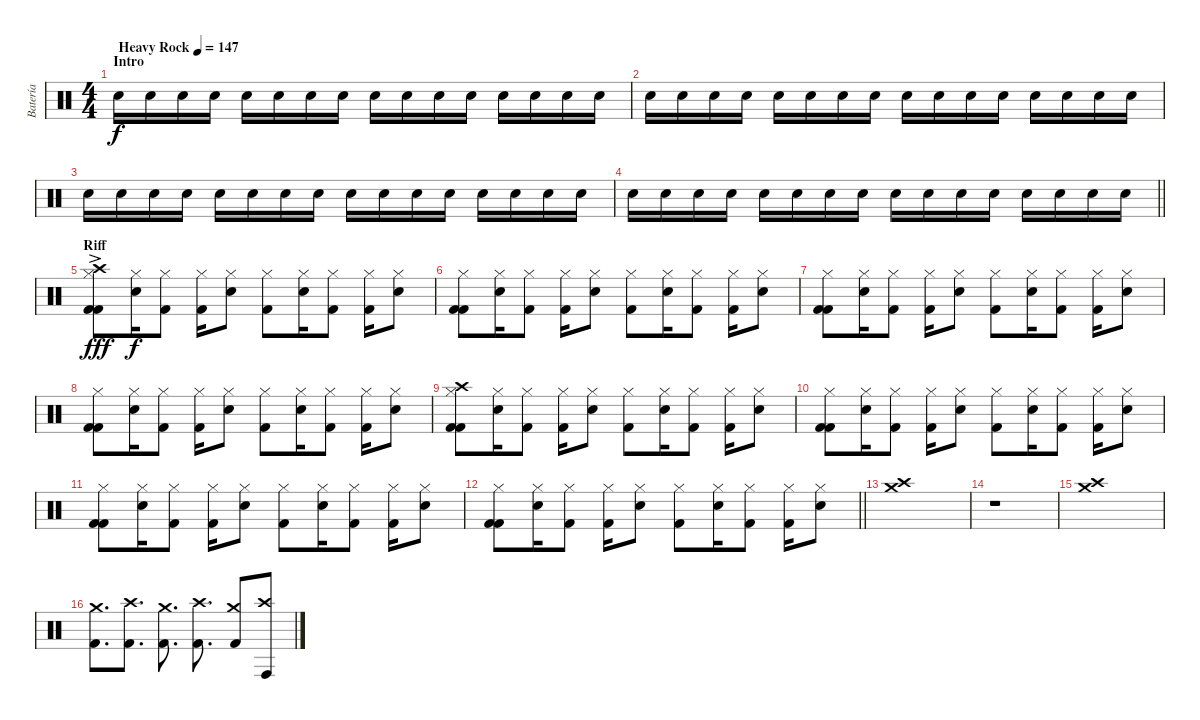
\track ("Batería" "Batería") {instrument percussion}
\staff {score}
\articulation defaults
\ts (4 4)
\section ("" "Intro")
\tempo (147 "Heavy Rock")
\clef neutral
\ks c "Snare (hit) 2".16{dy f} "Snare (hit) 2".16 "Snare (hit) 2".16 "Snare (hit) 2".16 "Snare (hit) 2".16 "Snare (hit) 2".16 "Snare (hit) 2".16 "Snare (hit) 2".16 "Snare (hit) 2".16 "Snare (hit) 2".16 "Snare (hit) 2".16 "Snare (hit) 2".16 "Snare (hit) 2".16 "Snare (hit) 2".16 "Snare (hit) 2".16 "Snare (hit) 2".16
|
"Snare (hit) 2".16 "Snare (hit) 2".16 "Snare (hit) 2".16 "Snare (hit) 2".16 "Snare (hit) 2".16 "Snare (hit) 2".16 "Snare (hit) 2".16 "Snare (hit) 2".16 "Snare (hit) 2".16 "Snare (hit) 2".16 "Snare (hit) 2".16 "Snare (hit) 2".16 "Snare (hit) 2".16 "Snare (hit) 2".16 "Snare (hit) 2".16 "Snare (hit) 2".16 |
"Snare (hit) 2".16 "Snare (hit) 2".16 "Snare (hit) 2".16 "Snare (hit) 2".16 "Snare (hit) 2".16 "Snare (hit) 2".16 "Snare (hit) 2".16 "Snare (hit) 2".16 "Snare (hit) 2".16 "Snare (hit) 2".16 "Snare (hit) 2".16 "Snare (hit) 2".16 "Snare (hit) 2".16 "Snare (hit) 2".16 "Snare (hit) 2".16 "Snare (hit) 2".16 |
\barLineRight lightlight "Snare (hit) 2".16 "Snare (hit) 2".16 "Snare (hit) 2".16 "Snare (hit) 2".16 "Snare (hit) 2".16 "Snare (hit) 2".16 "Snare (hit) 2".16 "Snare (hit) 2".16 "Snare (hit) 2".16 "Snare (hit) 2".16 "Snare (hit) 2".16 "Snare (hit) 2".16 "Snare (hit) 2".16 "Snare (hit) 2".16 "Snare (hit) 2".16 "Snare (hit) 2".16
|
\section ("" "Riff")
("Crash high (hit)"{ac} "Hi-Hat (closed)" "Kick (hit) 2" "Kick (hit) 2").8{dy fff} ("Hi-Hat (closed)" "Electric Snare (hit)").16{dy f} ("Hi-Hat (closed)" "Kick (hit) 2").8 ("Hi-Hat (closed)" "Kick (hit) 2").16 ("Hi-Hat (closed)" "Electric Snare (hit)").8 ("Hi-Hat (closed)" "Kick (hit) 2").8 ("Hi-Hat (closed)" "Electric Snare (hit)").16 ("Hi-Hat (closed)" "Kick (hit) 2").8 ("Hi-Hat (closed)" "Kick (hit) 2").16 ("Hi-Hat (closed)" "Electric Snare (hit)").8 |
("Hi-Hat (closed)" "Kick (hit) 2" "Kick (hit) 2").8 ("Hi-Hat (closed)" "Electric Snare (hit)").16 ("Hi-Hat (closed)" "Kick (hit) 2").8 ("Hi-Hat (closed)" "Kick (hit) 2").16 ("Hi-Hat (closed)" "Electric Snare (hit)").8 ("Hi-Hat (closed)" "Kick (hit) 2").8 ("Hi-Hat (closed)" "Electric Snare (hit)").16 ("Hi-Hat (closed)" "Kick (hit) 2").8 ("Hi-Hat (closed)" "Kick (hit) 2").16 ("Hi-Hat (closed)" "Electric Snare (hit)").8 |
("Hi-Hat (closed)" "Kick (hit) 2" "Kick (hit) 2").8 ("Hi-Hat (closed)" "Electric Snare (hit)").16 ("Hi-Hat (closed)" "Kick (hit) 2").8 ("Hi-Hat (closed)" "Kick (hit) 2").16 ("Hi-Hat (closed)" "Electric Snare (hit)").8 ("Hi-Hat (closed)" "Kick (hit) 2").8 ("Hi-Hat (closed)" "Electric Snare (hit)").16 ("Hi-Hat (closed)" "Kick (hit) 2").8 ("Hi-Hat (closed)" "Kick (hit) 2").16 ("Hi-Hat (closed)" "Electric Snare (hit)").8 |
("Hi-Hat (closed)" "Kick (hit) 2" "Kick (hit) 2").8 ("Hi-Hat (closed)" "Electric Snare (hit)").16 ("Hi-Hat (closed)" "Kick (hit) 2").8 ("Hi-Hat (closed)" "Kick (hit) 2").16 ("Hi-Hat (closed)" "Electric Snare (hit)").8 ("Hi-Hat (closed)" "Kick (hit) 2").8 ("Hi-Hat (closed)" "Electric Snare (hit)").16 ("Hi-Hat (closed)" "Kick (hit) 2").8 ("Hi-Hat (closed)" "Kick (hit) 2").16 ("Hi-Hat (closed)" "Electric Snare (hit)").8 |
("Crash high (hit)" "Hi-Hat (closed)" "Kick (hit) 2" "Kick (hit) 2").8 ("Hi-Hat (closed)" "Electric Snare (hit)").16 ("Hi-Hat (closed)" "Kick (hit) 2").8 ("Hi-Hat (closed)" "Kick (hit) 2").16 ("Hi-Hat (closed)" "Electric Snare (hit)").8 ("Hi-Hat (closed)" "Kick (hit) 2").8 ("Hi-Hat (closed)" "Electric Snare (hit)").16 ("Hi-Hat (closed)" "Kick (hit) 2").8 ("Hi-Hat (closed)" "Kick (hit) 2").16 ("Hi-Hat (closed)" "Electric Snare (hit)").8 |
("Hi-Hat (closed)" "Kick (hit) 2" "Kick (hit) 2").8 ("Hi-Hat (closed)" "Electric Snare (hit)").16 ("Hi-Hat (closed)" "Kick (hit) 2").8 ("Hi-Hat (closed)" "Kick (hit) 2").16 ("Hi-Hat (closed)" "Electric Snare (hit)").8 ("Hi-Hat (closed)" "Kick (hit) 2").8 ("Hi-Hat (closed)" "Electric Snare (hit)").16 ("Hi-Hat (closed)" "Kick (hit) 2").8 ("Hi-Hat (closed)" "Kick (hit) 2").16 ("Hi-Hat (closed)" "Electric Snare (hit)").8 |
("Hi-Hat (closed)" "Kick (hit) 2" "Kick (hit) 2").8 ("Hi-Hat (closed)" "Electric Snare (hit)").16 ("Hi-Hat (closed)" "Kick (hit) 2").8 ("Hi-Hat (closed)" "Kick (hit) 2").16 ("Hi-Hat (closed)" "Electric Snare (hit)").8 ("Hi-Hat (closed)" "Kick (hit) 2").8 ("Hi-Hat (closed)" "Electric Snare (hit)").16 ("Hi-Hat (closed)" "Kick (hit) 2").8 ("Hi-Hat (closed)" "Kick (hit) 2").16 ("Hi-Hat (closed)" "Electric Snare (hit)").8 |
\barLineRight lightlight
("Hi-Hat (closed)" "Kick (hit) 2" "Kick (hit) 2").8 ("Hi-Hat (closed)" "Electric Snare (hit)").16 ("Hi-Hat (closed)" "Kick (hit) 2").8 ("Hi-Hat (closed)" "Kick (hit) 2").16 ("Hi-Hat (closed)" "Electric Snare (hit)").8 ("Hi-Hat (closed)" "Kick (hit) 2").8 ("Hi-Hat (closed)" "Electric Snare (hit)").16 ("Hi-Hat (closed)" "Kick (hit) 2").8 ("Hi-Hat (closed)" "Kick (hit) 2").16 ("Hi-Hat (closed)" "Electric Snare (hit)").8 |
\section ("" "")
("Crash medium (hit)" "Crash high (hit)").1 |
r.1 |
("Crash medium (hit)" "Crash high (hit)").1 |
("Crash medium (hit)" "Kick (hit) 2").8{d} ("Crash high (hit)" "Kick (hit) 2").8{d} ("Crash medium (hit)" "Kick (hit) 2").8{d} ("Crash high (hit)" "Kick (hit) 2").8{d} ("Crash medium (hit)" "Kick (hit) 2").8 ("Crash high (hit)" "Conga high (hit)").8
